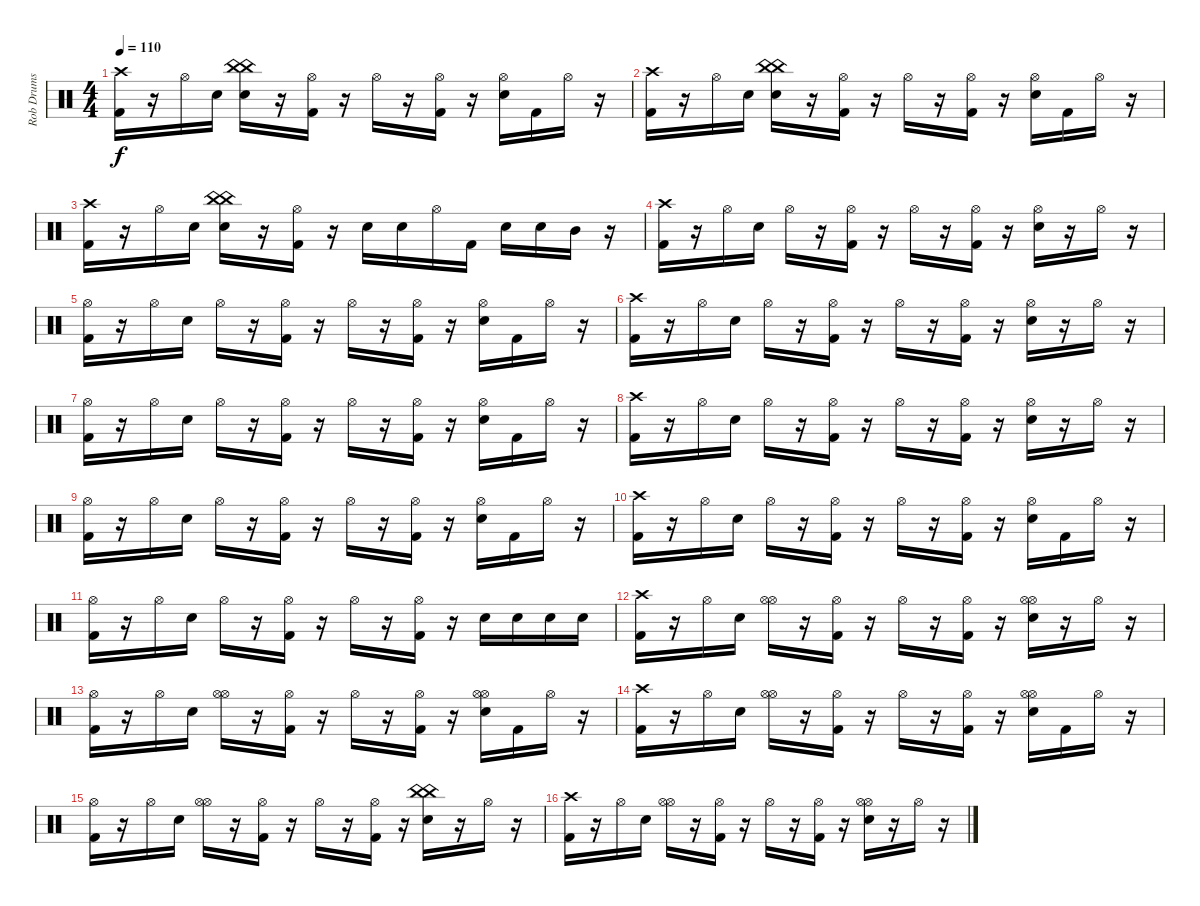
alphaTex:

\track ("Rob Drums" "Rob Drums") {instrument percussion}
\staff {score}
\articulation defaults
\ts (4 4)
\tempo 110
\clef neutral
\ks c
("Crash high (hit)" "Kick (hit) 2").16{dy f} r.16 "Hi-Hat (open)".16 "Electric Snare (hit)".16 ("China (hit)" "China (hit)" "Electric Snare (hit)").16 r.16 ("Hi-Hat (open)" "Kick (hit) 2").16 r.16 "Hi-Hat (open)".16 r.16 ("Hi-Hat (open)" "Kick (hit) 2").16 r.16 ("Hi-Hat (open)" "Electric Snare (hit)").16 "Kick (hit) 2".16 "Hi-Hat (open)".16 r.16 |
("Crash high (hit)" "Kick (hit) 2").16 r.16 "Hi-Hat (open)".16 "Electric Snare (hit)".16 ("China (hit)" "China (hit)" "Electric Snare (hit)").16 r.16 ("Hi-Hat (open)" "Kick (hit) 2").16 r.16 "Hi-Hat (open)".16 r.16 ("Hi-Hat (open)" "Kick (hit) 2").16 r.16 ("Hi-Hat (open)" "Electric Snare (hit)").16 "Kick (hit) 2".16 "Hi-Hat (open)".16 r.16 |
("Crash high (hit)" "Kick (hit) 2").16 r.16 "Hi-Hat (open)".16 "Electric Snare (hit)".16 ("China (hit)" "China (hit)" "Electric Snare (hit)").16 r.16 ("Hi-Hat (open)" "Kick (hit) 2").16 r.16 "Electric Snare (hit)".16 "Electric Snare (hit)".16 "Hi-Hat (open)".16 "Kick (hit) 2".16 "Electric Snare (hit)".16 "Electric Snare (hit)".16 "Mid Tom (hit)".16 r.16 |
("Crash high (hit)" "Kick (hit) 2").16 r.16 "Hi-Hat (open)".16 "Electric Snare (hit)".16 "Hi-Hat (open)".16 r.16 ("Hi-Hat (open)" "Kick (hit) 2").16 r.16 "Hi-Hat (open)".16 r.16 ("Hi-Hat (open)" "Kick (hit) 2").16 r.16 ("Hi-Hat (open)" "Electric Snare (hit)").16 r.16 "Hi-Hat (open)".16 r.16 |
("Hi-Hat (open)" "Kick (hit) 2").16 r.16 "Hi-Hat (open)".16 "Electric Snare (hit)".16 "Hi-Hat (open)".16 r.16 ("Hi-Hat (open)" "Kick (hit) 2").16 r.16 "Hi-Hat (open)".16 r.16 ("Hi-Hat (open)" "Kick (hit) 2").16 r.16 ("Hi-Hat (open)" "Electric Snare (hit)").16 "Kick (hit) 2".16 "Hi-Hat (open)".16 r.16 |
("Crash high (hit)" "Kick (hit) 2").16 r.16 "Hi-Hat (open)".16 "Electric Snare (hit)".16 "Hi-Hat (open)".16 r.16 ("Hi-Hat (open)" "Kick (hit) 2").16 r.16 "Hi-Hat (open)".16 r.16 ("Hi-Hat (open)" "Kick (hit) 2").16 r.16 ("Hi-Hat (open)" "Electric Snare (hit)").16 r.16 "Hi-Hat (open)".16 r.16 |
("Hi-Hat (open)" "Kick (hit) 2").16 r.16 "Hi-Hat (open)".16 "Electric Snare (hit)".16 "Hi-Hat (open)".16 r.16 ("Hi-Hat (open)" "Kick (hit) 2").16 r.16 "Hi-Hat (open)".16 r.16 ("Hi-Hat (open)" "Kick (hit) 2").16 r.16 ("Hi-Hat (open)" "Electric Snare (hit)").16 "Kick (hit) 2".16 "Hi-Hat (open)".16 r.16 |
("Crash high (hit)" "Kick (hit) 2").16 r.16 "Hi-Hat (open)".16 "Electric Snare (hit)".16 "Hi-Hat (open)".16 r.16 ("Hi-Hat (open)" "Kick (hit) 2").16 r.16 "Hi-Hat (open)".16 r.16 ("Hi-Hat (open)" "Kick (hit) 2").16 r.16 ("Hi-Hat (open)" "Electric Snare (hit)").16 r.16 "Hi-Hat (open)".16 r.16 |
("Hi-Hat (open)" "Kick (hit) 2").16 r.16 "Hi-Hat (open)".16 "Electric Snare (hit)".16 "Hi-Hat (open)".16 r.16 ("Hi-Hat (open)" "Kick (hit) 2").16 r.16 "Hi-Hat (open)".16 r.16 ("Hi-Hat (open)" "Kick (hit) 2").16 r.16 ("Hi-Hat (open)" "Electric Snare (hit)").16 "Kick (hit) 2".16 "Hi-Hat (open)".16 r.16 |
("Crash high (hit)" "Kick (hit) 2").16 r.16 "Hi-Hat (open)".16 "Electric Snare (hit)".16 "Hi-Hat (open)".16 r.16 ("Hi-Hat (open)" "Kick (hit) 2").16 r.16 "Hi-Hat (open)".16 r.16 ("Hi-Hat (open)" "Kick (hit) 2").16 r.16 ("Hi-Hat (open)" "Electric Snare (hit)").16 "Kick (hit) 2".16 "Hi-Hat (open)".16 r.16 |
("Hi-Hat (open)" "Kick (hit) 2").16 r.16 "Hi-Hat (open)".16 "Electric Snare (hit)".16 "Hi-Hat (open)".16 r.16 ("Hi-Hat (open)" "Kick (hit) 2").16 r.16 "Hi-Hat (open)".16 r.16 ("Hi-Hat (open)" "Kick (hit) 2").16 r.16 "Electric Snare (hit)".16 "Electric Snare (hit)".16 "Electric Snare (hit)".16 "Electric Snare (hit)".16 |
("Crash high (hit)" "Kick (hit) 2").16 r.16 "Hi-Hat (open)".16 "Electric Snare (hit)".16 ("Hi-Hat (open)" "Hi-Hat (open)").16 r.16 ("Hi-Hat (open)" "Kick (hit) 2").16 r.16 "Hi-Hat (open)".16 r.16 ("Hi-Hat (open)" "Kick (hit) 2").16 r.16 ("Hi-Hat (open)" "Hi-Hat (open)" "Electric Snare (hit)").16 r.16 "Hi-Hat (open)".16 r.16 |
("Hi-Hat (open)" "Kick (hit) 2").16 r.16 "Hi-Hat (open)".16 "Electric Snare (hit)".16 ("Hi-Hat (open)" "Hi-Hat (open)").16 r.16 ("Hi-Hat (open)" "Kick (hit) 2").16 r.16 "Hi-Hat (open)".16 r.16 ("Hi-Hat (open)" "Kick (hit) 2").16 r.16 ("Hi-Hat (open)" "Hi-Hat (open)" "Electric Snare (hit)").16 "Kick (hit) 2".16 "Hi-Hat (open)".16 r.16 |
("Crash high (hit)" "Kick (hit) 2").16 r.16 "Hi-Hat (open)".16 "Electric Snare (hit)".16 ("Hi-Hat (open)" "Hi-Hat (open)").16 r.16 ("Hi-Hat (open)" "Kick (hit) 2").16 r.16 "Hi-Hat (open)".16 r.16 ("Hi-Hat (open)" "Kick (hit) 2").16 r.16 ("Hi-Hat (open)" "Hi-Hat (open)" "Electric Snare (hit)").16 "Kick (hit) 2".16 "Hi-Hat (open)".16 r.16 |
("Hi-Hat (open)" "Kick (hit) 2").16 r.16 "Hi-Hat (open)".16 "Electric Snare (hit)".16 ("Hi-Hat (open)" "Hi-Hat (open)").16 r.16 ("Hi-Hat (open)" "Kick (hit) 2").16 r.16 "Hi-Hat (open)".16 r.16 ("Hi-Hat (open)" "Kick (hit) 2").16 r.16 ("China (hit)" "China (hit)" "Electric Snare (hit)").16 r.16 "Hi-Hat (open)".16 r.16 |
("Crash high (hit)" "Kick (hit) 2").16 r.16 "Hi-Hat (open)".16 "Electric Snare (hit)".16 ("Hi-Hat (open)" "Hi-Hat (open)").16 r.16 ("Hi-Hat (open)" "Kick (hit) 2").16 r.16 "Hi-Hat (open)".16 r.16 ("Hi-Hat (open)" "Kick (hit) 2").16 r.16 ("Hi-Hat (open)" "Hi-Hat (open)" "Electric Snare (hit)").16 r.16 "Hi-Hat (open)".16 r.16
